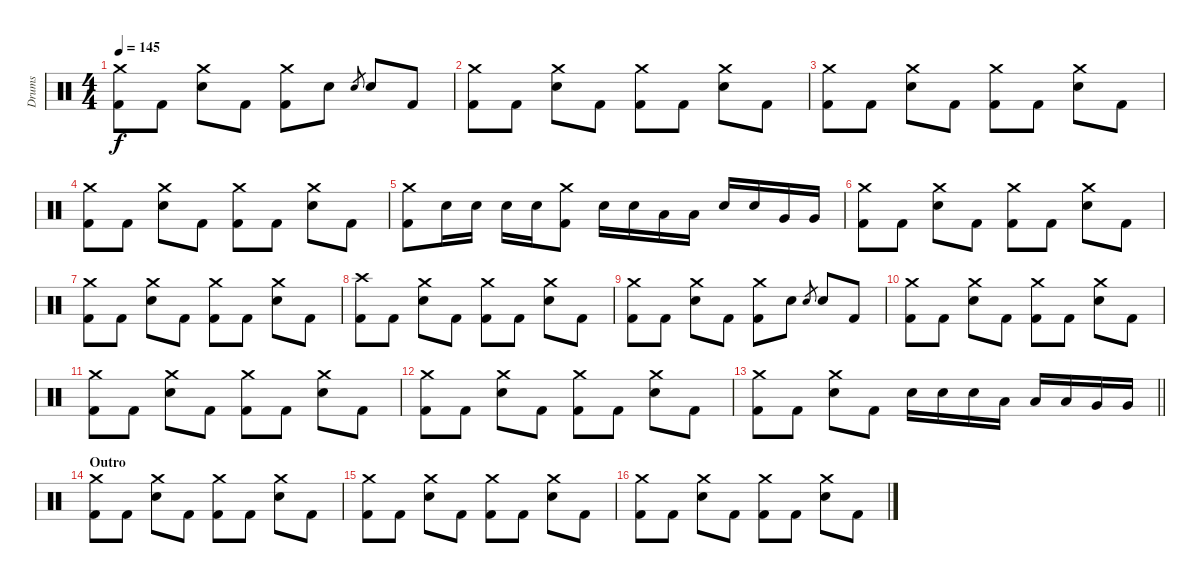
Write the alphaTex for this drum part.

\track ("Drums" "Drums") {instrument percussion}
\staff {score}
\articulation defaults
\ts (4 4)
\tempo 145
\clef neutral
\ks c
("Crash medium (hit)" "Kick (hit) 2").8{dy f} "Kick (hit) 2".8 ("Crash medium (hit)" "Electric Snare (hit)").8 "Kick (hit) 2".8 ("Crash medium (hit)" "Kick (hit) 2").8 "Electric Snare (hit)".8 "Electric Snare (hit)".8{gr} "Electric Snare (hit)".8 "Kick (hit) 2".8 |
("Crash medium (hit)" "Kick (hit) 2").8 "Kick (hit) 2".8 ("Crash medium (hit)" "Electric Snare (hit)").8 "Kick (hit) 2".8 ("Crash medium (hit)" "Kick (hit) 2").8 "Kick (hit) 2".8 ("Crash medium (hit)" "Electric Snare (hit)").8 "Kick (hit) 2".8 |
("Crash medium (hit)" "Kick (hit) 2").8 "Kick (hit) 2".8 ("Crash medium (hit)" "Electric Snare (hit)").8 "Kick (hit) 2".8 ("Crash medium (hit)" "Kick (hit) 2").8 "Kick (hit) 2".8 ("Crash medium (hit)" "Electric Snare (hit)").8 "Kick (hit) 2".8 |
("Crash medium (hit)" "Kick (hit) 2").8 "Kick (hit) 2".8 ("Crash medium (hit)" "Electric Snare (hit)").8 "Kick (hit) 2".8 ("Crash medium (hit)" "Kick (hit) 2").8 "Kick (hit) 2".8 ("Crash medium (hit)" "Electric Snare (hit)").8 "Kick (hit) 2".8 |
("Crash medium (hit)" "Kick (hit) 2").8 "Electric Snare (hit)".16 "Electric Snare (hit)".16 "Electric Snare (hit)".16 "Electric Snare (hit)".16 ("Crash medium (hit)" "Kick (hit) 2").8 "Electric Snare (hit)".16 "Electric Snare (hit)".16 "Low Tom (hit)".16 "Low Tom (hit)".16 "Electric Snare (hit)".16 "Electric Snare (hit)".16 "Very Low Tom (hit)".16 "Very Low Tom (hit)".16 |
("Crash medium (hit)" "Kick (hit) 2").8 "Kick (hit) 2".8 ("Crash medium (hit)" "Electric Snare (hit)").8 "Kick (hit) 2".8 ("Crash medium (hit)" "Kick (hit) 2").8 "Kick (hit) 2".8 ("Crash medium (hit)" "Electric Snare (hit)").8 "Kick (hit) 2".8 |
("Crash medium (hit)" "Kick (hit) 2").8 "Kick (hit) 2".8 ("Crash medium (hit)" "Electric Snare (hit)").8 "Kick (hit) 2".8 ("Crash medium (hit)" "Kick (hit) 2").8 "Kick (hit) 2".8 ("Crash medium (hit)" "Electric Snare (hit)").8 "Kick (hit) 2".8 |
("Crash high (hit)" "Kick (hit) 2").8 "Kick (hit) 2".8 ("Crash medium (hit)" "Electric Snare (hit)").8 "Kick (hit) 2".8 ("Crash medium (hit)" "Kick (hit) 2").8 "Kick (hit) 2".8 ("Crash medium (hit)" "Electric Snare (hit)").8 "Kick (hit) 2".8 |
("Crash medium (hit)" "Kick (hit) 2").8 "Kick (hit) 2".8 ("Crash medium (hit)" "Electric Snare (hit)").8 "Kick (hit) 2".8 ("Crash medium (hit)" "Kick (hit) 2").8 "Electric Snare (hit)".8 "Electric Snare (hit)".8{gr} "Electric Snare (hit)".8 "Kick (hit) 2".8 |
("Crash medium (hit)" "Kick (hit) 2").8 "Kick (hit) 2".8 ("Crash medium (hit)" "Electric Snare (hit)").8 "Kick (hit) 2".8 ("Crash medium (hit)" "Kick (hit) 2").8 "Kick (hit) 2".8 ("Crash medium (hit)" "Electric Snare (hit)").8 "Kick (hit) 2".8 |
("Crash medium (hit)" "Kick (hit) 2").8 "Kick (hit) 2".8 ("Crash medium (hit)" "Electric Snare (hit)").8 "Kick (hit) 2".8 ("Crash medium (hit)" "Kick (hit) 2").8 "Kick (hit) 2".8 ("Crash medium (hit)" "Electric Snare (hit)").8 "Kick (hit) 2".8 |
("Crash medium (hit)" "Kick (hit) 2").8 "Kick (hit) 2".8 ("Crash medium (hit)" "Electric Snare (hit)").8 "Kick (hit) 2".8 ("Crash medium (hit)" "Kick (hit) 2").8 "Kick (hit) 2".8 ("Crash medium (hit)" "Electric Snare (hit)").8 "Kick (hit) 2".8 |
\barLineRight lightlight
("Crash medium (hit)" "Kick (hit) 2").8 "Kick (hit) 2".8 ("Crash medium (hit)" "Electric Snare (hit)").8 "Kick (hit) 2".8 "Electric Snare (hit)".16 "Electric Snare (hit)".16 "Electric Snare (hit)".16 "Low Tom (hit)".16 "Low Tom (hit)".16 "Low Tom (hit)".16 "Very Low Tom (hit)".16 "Very Low Tom (hit)".16 |
\section ("" "Outro")
("Crash medium (hit)" "Kick (hit) 2").8 "Kick (hit) 2".8 ("Crash medium (hit)" "Electric Snare (hit)").8 "Kick (hit) 2".8 ("Crash medium (hit)" "Kick (hit) 2").8 "Kick (hit) 2".8 ("Crash medium (hit)" "Electric Snare (hit)").8 "Kick (hit) 2".8 |
("Crash medium (hit)" "Kick (hit) 2").8 "Kick (hit) 2".8 ("Crash medium (hit)" "Electric Snare (hit)").8 "Kick (hit) 2".8 ("Crash medium (hit)" "Kick (hit) 2").8 "Kick (hit) 2".8 ("Crash medium (hit)" "Electric Snare (hit)").8 "Kick (hit) 2".8 |
("Crash medium (hit)" "Kick (hit) 2").8 "Kick (hit) 2".8 ("Crash medium (hit)" "Electric Snare (hit)").8 "Kick (hit) 2".8 ("Crash medium (hit)" "Kick (hit) 2").8 "Kick (hit) 2".8 ("Crash medium (hit)" "Electric Snare (hit)").8 "Kick (hit) 2".8
